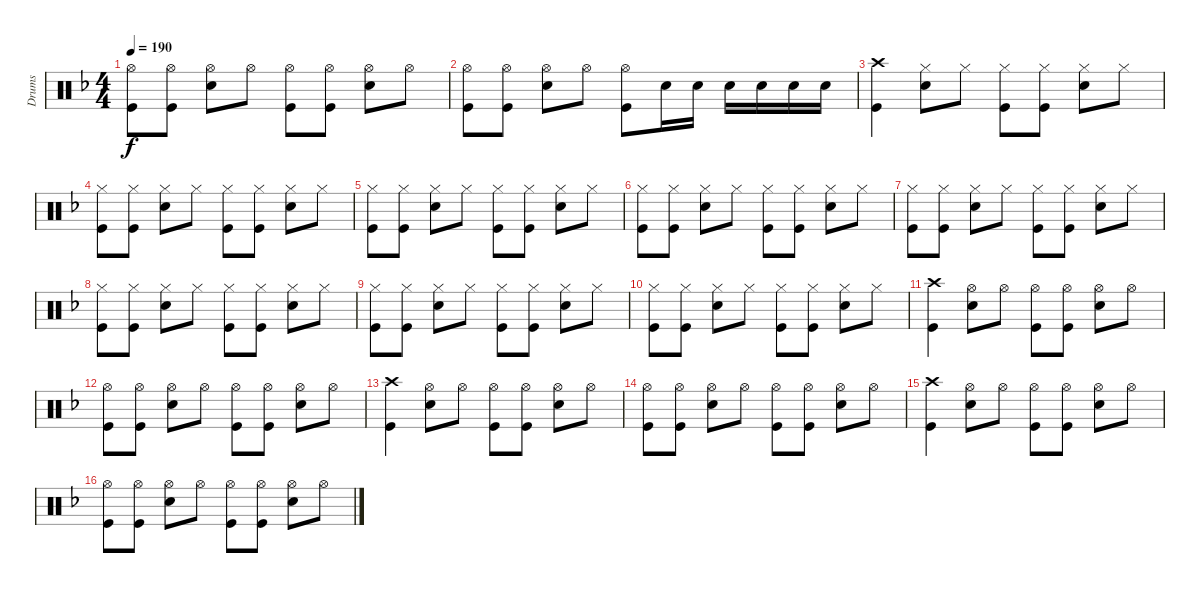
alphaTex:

\track ("Drums" "Drums") {instrument percussion}
\staff {score}
\articulation defaults
\ts (4 4)
\tempo 190
\clef neutral
\ks f
("Kick (hit)" "Hi-Hat (open)").8{dy f} ("Hi-Hat (open)" "Kick (hit)").8 ("Snare (hit) 2" "Hi-Hat (open)").8 "Hi-Hat (open)".8 ("Hi-Hat (open)" "Kick (hit)").8 ("Hi-Hat (open)" "Kick (hit)").8 ("Hi-Hat (open)" "Snare (hit) 2").8 "Hi-Hat (open)".8 |
("Kick (hit)" "Hi-Hat (open)").8 ("Hi-Hat (open)" "Kick (hit)").8 ("Snare (hit) 2" "Hi-Hat (open)").8 "Hi-Hat (open)".8 ("Hi-Hat (open)" "Kick (hit)").8 "Snare (hit) 2".16 "Snare (hit) 2".16 "Snare (hit) 2".16 "Snare (hit) 2".16 "Snare (hit) 2".16 "Snare (hit) 2".16 |
("Kick (hit)" "Crash high (hit)").4 ("Hi-Hat (closed)" "Snare (hit) 2").8 "Hi-Hat (closed)".8 ("Hi-Hat (closed)" "Kick (hit)").8 ("Hi-Hat (closed)" "Kick (hit)").8 ("Hi-Hat (closed)" "Snare (hit) 2").8 "Hi-Hat (closed)".8 |
("Kick (hit)" "Hi-Hat (closed)").8 ("Hi-Hat (closed)" "Kick (hit)").8 ("Hi-Hat (closed)" "Snare (hit) 2").8 "Hi-Hat (closed)".8 ("Hi-Hat (closed)" "Kick (hit)").8 ("Hi-Hat (closed)" "Kick (hit)").8 ("Hi-Hat (closed)" "Snare (hit) 2").8 "Hi-Hat (closed)".8 |
("Kick (hit)" "Hi-Hat (closed)").8 ("Hi-Hat (closed)" "Kick (hit)").8 ("Hi-Hat (closed)" "Snare (hit) 2").8 "Hi-Hat (closed)".8 ("Hi-Hat (closed)" "Kick (hit)").8 ("Hi-Hat (closed)" "Kick (hit)").8 ("Hi-Hat (closed)" "Snare (hit) 2").8 "Hi-Hat (closed)".8 |
("Kick (hit)" "Hi-Hat (closed)").8 ("Hi-Hat (closed)" "Kick (hit)").8 ("Hi-Hat (closed)" "Snare (hit) 2").8 "Hi-Hat (closed)".8 ("Hi-Hat (closed)" "Kick (hit)").8 ("Hi-Hat (closed)" "Kick (hit)").8 ("Hi-Hat (closed)" "Snare (hit) 2").8 "Hi-Hat (closed)".8 |
("Kick (hit)" "Hi-Hat (closed)").8 ("Hi-Hat (closed)" "Kick (hit)").8 ("Hi-Hat (closed)" "Snare (hit) 2").8 "Hi-Hat (closed)".8 ("Hi-Hat (closed)" "Kick (hit)").8 ("Hi-Hat (closed)" "Kick (hit)").8 ("Hi-Hat (closed)" "Snare (hit) 2").8 "Hi-Hat (closed)".8 |
("Kick (hit)" "Hi-Hat (closed)").8 ("Hi-Hat (closed)" "Kick (hit)").8 ("Hi-Hat (closed)" "Snare (hit) 2").8 "Hi-Hat (closed)".8 ("Hi-Hat (closed)" "Kick (hit)").8 ("Hi-Hat (closed)" "Kick (hit)").8 ("Hi-Hat (closed)" "Snare (hit) 2").8 "Hi-Hat (closed)".8 |
("Kick (hit)" "Hi-Hat (closed)").8 ("Hi-Hat (closed)" "Kick (hit)").8 ("Hi-Hat (closed)" "Snare (hit) 2").8 "Hi-Hat (closed)".8 ("Hi-Hat (closed)" "Kick (hit)").8 ("Hi-Hat (closed)" "Kick (hit)").8 ("Hi-Hat (closed)" "Snare (hit) 2").8 "Hi-Hat (closed)".8 |
("Kick (hit)" "Hi-Hat (closed)").8 ("Hi-Hat (closed)" "Kick (hit)").8 ("Hi-Hat (closed)" "Snare (hit) 2").8 "Hi-Hat (closed)".8 ("Hi-Hat (closed)" "Kick (hit)").8 ("Hi-Hat (closed)" "Kick (hit)").8 ("Hi-Hat (closed)" "Snare (hit) 2").8 "Hi-Hat (closed)".8 |
("Kick (hit)" "Crash high (hit)").4 ("Snare (hit) 2" "Hi-Hat (open)").8 "Hi-Hat (open)".8 ("Hi-Hat (open)" "Kick (hit)").8 ("Hi-Hat (open)" "Kick (hit)").8 ("Hi-Hat (open)" "Snare (hit) 2").8 "Hi-Hat (open)".8 |
("Kick (hit)" "Hi-Hat (open)").8 ("Hi-Hat (open)" "Kick (hit)").8 ("Snare (hit) 2" "Hi-Hat (open)").8 "Hi-Hat (open)".8 ("Hi-Hat (open)" "Kick (hit)").8 ("Hi-Hat (open)" "Kick (hit)").8 ("Hi-Hat (open)" "Snare (hit) 2").8 "Hi-Hat (open)".8 |
("Kick (hit)" "Crash high (hit)").4 ("Snare (hit) 2" "Hi-Hat (open)").8 "Hi-Hat (open)".8 ("Hi-Hat (open)" "Kick (hit)").8 ("Hi-Hat (open)" "Kick (hit)").8 ("Hi-Hat (open)" "Snare (hit) 2").8 "Hi-Hat (open)".8 |
("Kick (hit)" "Hi-Hat (open)").8 ("Hi-Hat (open)" "Kick (hit)").8 ("Snare (hit) 2" "Hi-Hat (open)").8 "Hi-Hat (open)".8 ("Hi-Hat (open)" "Kick (hit)").8 ("Hi-Hat (open)" "Kick (hit)").8 ("Hi-Hat (open)" "Snare (hit) 2").8 "Hi-Hat (open)".8 |
("Kick (hit)" "Crash high (hit)").4 ("Snare (hit) 2" "Hi-Hat (open)").8 "Hi-Hat (open)".8 ("Hi-Hat (open)" "Kick (hit)").8 ("Hi-Hat (open)" "Kick (hit)").8 ("Hi-Hat (open)" "Snare (hit) 2").8 "Hi-Hat (open)".8 |
("Kick (hit)" "Hi-Hat (open)").8 ("Hi-Hat (open)" "Kick (hit)").8 ("Snare (hit) 2" "Hi-Hat (open)").8 "Hi-Hat (open)".8 ("Hi-Hat (open)" "Kick (hit)").8 ("Hi-Hat (open)" "Kick (hit)").8 ("Hi-Hat (open)" "Snare (hit) 2").8 "Hi-Hat (open)".8
